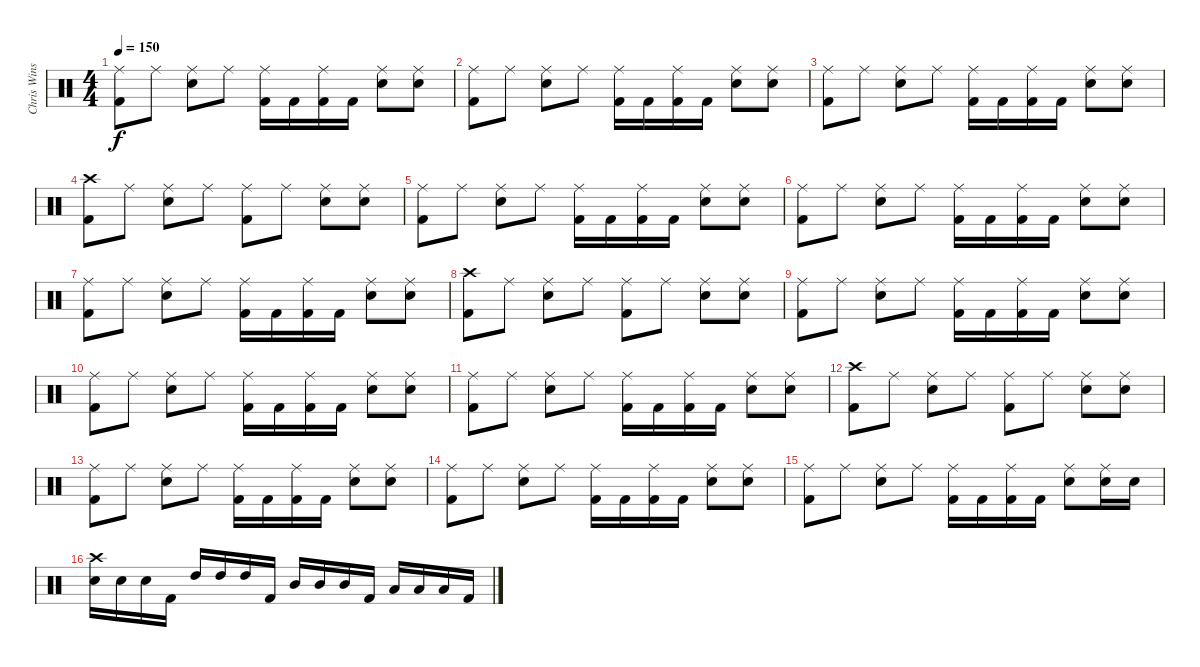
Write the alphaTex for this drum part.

\track ("Chris Winship (Drums)" "Chris Wins") {instrument percussion}
\staff {score}
\articulation defaults
\ts (4 4)
\tempo 150
\clef neutral
\ks c
("Ride (middle)" "Kick (hit) 2").8{dy f} "Ride (middle)".8 ("Ride (middle)" "Electric Snare (hit)").8 "Ride (middle)".8 ("Ride (middle)" "Kick (hit) 2").16 "Kick (hit) 2".16 ("Ride (middle)" "Kick (hit) 2").16 "Kick (hit) 2".16 ("Ride (middle)" "Electric Snare (hit)").8 ("Ride (middle)" "Electric Snare (hit)").8 |
("Ride (middle)" "Kick (hit) 2").8 "Ride (middle)".8 ("Ride (middle)" "Electric Snare (hit)").8 "Ride (middle)".8 ("Ride (middle)" "Kick (hit) 2").16 "Kick (hit) 2".16 ("Ride (middle)" "Kick (hit) 2").16 "Kick (hit) 2".16 ("Ride (middle)" "Electric Snare (hit)").8 ("Ride (middle)" "Electric Snare (hit)").8 |
("Ride (middle)" "Kick (hit) 2").8 "Ride (middle)".8 ("Ride (middle)" "Electric Snare (hit)").8 "Ride (middle)".8 ("Ride (middle)" "Kick (hit) 2").16 "Kick (hit) 2".16 ("Ride (middle)" "Kick (hit) 2").16 "Kick (hit) 2".16 ("Ride (middle)" "Electric Snare (hit)").8 ("Ride (middle)" "Electric Snare (hit)").8 |
("Crash high (hit)" "Kick (hit) 2").8 "Ride (middle)".8 ("Ride (middle)" "Electric Snare (hit)").8 "Ride (middle)".8 ("Ride (middle)" "Kick (hit) 2").8 "Ride (middle)".8 ("Ride (middle)" "Electric Snare (hit)").8 ("Ride (middle)" "Electric Snare (hit)").8 |
("Ride (middle)" "Kick (hit) 2").8 "Ride (middle)".8 ("Ride (middle)" "Electric Snare (hit)").8 "Ride (middle)".8 ("Ride (middle)" "Kick (hit) 2").16 "Kick (hit) 2".16 ("Ride (middle)" "Kick (hit) 2").16 "Kick (hit) 2".16 ("Ride (middle)" "Electric Snare (hit)").8 ("Ride (middle)" "Electric Snare (hit)").8 |
("Ride (middle)" "Kick (hit) 2").8 "Ride (middle)".8 ("Ride (middle)" "Electric Snare (hit)").8 "Ride (middle)".8 ("Ride (middle)" "Kick (hit) 2").16 "Kick (hit) 2".16 ("Ride (middle)" "Kick (hit) 2").16 "Kick (hit) 2".16 ("Ride (middle)" "Electric Snare (hit)").8 ("Ride (middle)" "Electric Snare (hit)").8 |
("Ride (middle)" "Kick (hit) 2").8 "Ride (middle)".8 ("Ride (middle)" "Electric Snare (hit)").8 "Ride (middle)".8 ("Ride (middle)" "Kick (hit) 2").16 "Kick (hit) 2".16 ("Ride (middle)" "Kick (hit) 2").16 "Kick (hit) 2".16 ("Ride (middle)" "Electric Snare (hit)").8 ("Ride (middle)" "Electric Snare (hit)").8 |
("Crash high (hit)" "Kick (hit) 2").8 "Ride (middle)".8 ("Ride (middle)" "Electric Snare (hit)").8 "Ride (middle)".8 ("Ride (middle)" "Kick (hit) 2").8 "Ride (middle)".8 ("Ride (middle)" "Electric Snare (hit)").8 ("Ride (middle)" "Electric Snare (hit)").8 |
("Ride (middle)" "Kick (hit) 2").8 "Ride (middle)".8 ("Ride (middle)" "Electric Snare (hit)").8 "Ride (middle)".8 ("Ride (middle)" "Kick (hit) 2").16 "Kick (hit) 2".16 ("Ride (middle)" "Kick (hit) 2").16 "Kick (hit) 2".16 ("Ride (middle)" "Electric Snare (hit)").8 ("Ride (middle)" "Electric Snare (hit)").8 |
("Ride (middle)" "Kick (hit) 2").8 "Ride (middle)".8 ("Ride (middle)" "Electric Snare (hit)").8 "Ride (middle)".8 ("Ride (middle)" "Kick (hit) 2").16 "Kick (hit) 2".16 ("Ride (middle)" "Kick (hit) 2").16 "Kick (hit) 2".16 ("Ride (middle)" "Electric Snare (hit)").8 ("Ride (middle)" "Electric Snare (hit)").8 |
("Ride (middle)" "Kick (hit) 2").8 "Ride (middle)".8 ("Ride (middle)" "Electric Snare (hit)").8 "Ride (middle)".8 ("Ride (middle)" "Kick (hit) 2").16 "Kick (hit) 2".16 ("Ride (middle)" "Kick (hit) 2").16 "Kick (hit) 2".16 ("Ride (middle)" "Electric Snare (hit)").8 ("Ride (middle)" "Electric Snare (hit)").8 |
("Crash high (hit)" "Kick (hit) 2").8 "Ride (middle)".8 ("Ride (middle)" "Electric Snare (hit)").8 "Ride (middle)".8 ("Ride (middle)" "Kick (hit) 2").8 "Ride (middle)".8 ("Ride (middle)" "Electric Snare (hit)").8 ("Ride (middle)" "Electric Snare (hit)").8 |
("Ride (middle)" "Kick (hit) 2").8 "Ride (middle)".8 ("Ride (middle)" "Electric Snare (hit)").8 "Ride (middle)".8 ("Ride (middle)" "Kick (hit) 2").16 "Kick (hit) 2".16 ("Ride (middle)" "Kick (hit) 2").16 "Kick (hit) 2".16 ("Ride (middle)" "Electric Snare (hit)").8 ("Ride (middle)" "Electric Snare (hit)").8 |
("Ride (middle)" "Kick (hit) 2").8 "Ride (middle)".8 ("Ride (middle)" "Electric Snare (hit)").8 "Ride (middle)".8 ("Ride (middle)" "Kick (hit) 2").16 "Kick (hit) 2".16 ("Ride (middle)" "Kick (hit) 2").16 "Kick (hit) 2".16 ("Ride (middle)" "Electric Snare (hit)").8 ("Ride (middle)" "Electric Snare (hit)").8 |
("Ride (middle)" "Kick (hit) 2").8 "Ride (middle)".8 ("Ride (middle)" "Electric Snare (hit)").8 "Ride (middle)".8 ("Ride (middle)" "Kick (hit) 2").16 "Kick (hit) 2".16 ("Ride (middle)" "Kick (hit) 2").16 "Kick (hit) 2".16 ("Ride (middle)" "Electric Snare (hit)").8 ("Ride (middle)" "Electric Snare (hit)").16 "Electric Snare (hit)".16 |
("Crash high (hit)" "Electric Snare (hit)").16 "Electric Snare (hit)".16 "Electric Snare (hit)".16 "Kick (hit) 2".16 "High Tom (hit)".16 "High Tom (hit)".16 "High Tom (hit)".16 "Kick (hit) 2".16 "Mid Tom (hit)".16 "Mid Tom (hit)".16 "Mid Tom (hit)".16 "Kick (hit) 2".16 "Low Tom (hit)".16 "Low Tom (hit)".16 "Low Tom (hit)".16 "Kick (hit) 2".16
